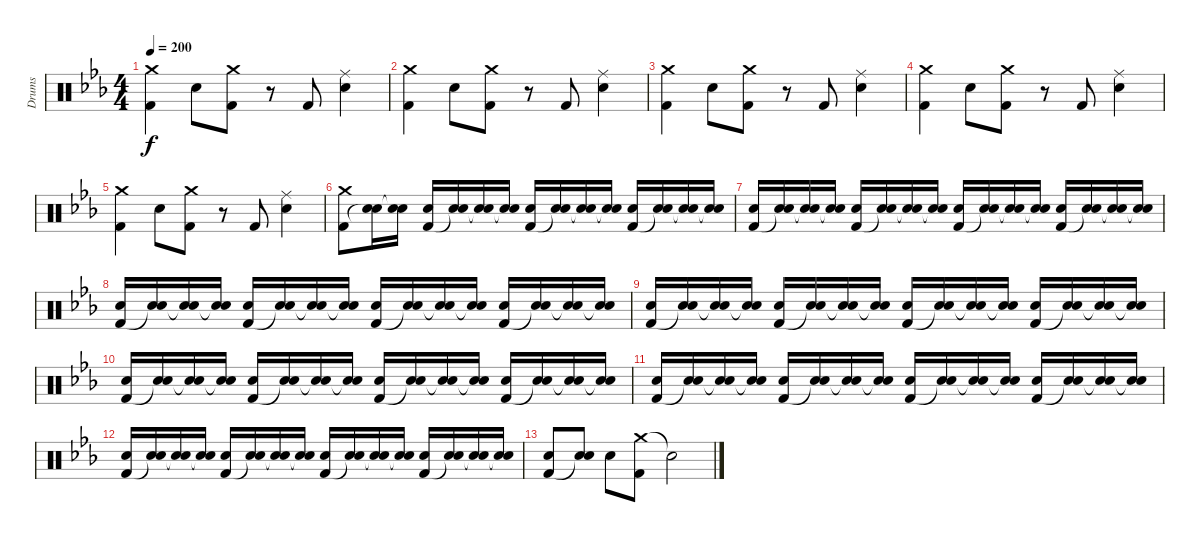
\track ("Drums" "Drums") {instrument percussion}
\staff {score}
\articulation defaults
\ts (4 4)
\tempo 200
\clef neutral
\ks cminor
("Crash medium (hit)" "Kick (hit) 2").4{dy f} "Electric Snare (hit)".8 ("Crash medium (hit)" "Kick (hit) 2").8 r.8 "Kick (hit) 2".8 ("Ride (middle)" "Electric Snare (hit)").4 |
("Crash medium (hit)" "Kick (hit) 2").4 "Electric Snare (hit)".8 ("Crash medium (hit)" "Kick (hit) 2").8 r.8 "Kick (hit) 2".8 ("Ride (middle)" "Electric Snare (hit)").4 |
("Crash medium (hit)" "Kick (hit) 2").4 "Electric Snare (hit)".8 ("Crash medium (hit)" "Kick (hit) 2").8 r.8 "Kick (hit) 2".8 ("Ride (middle)" "Electric Snare (hit)").4 |
("Crash medium (hit)" "Kick (hit) 2").4 "Electric Snare (hit)".8 ("Crash medium (hit)" "Kick (hit) 2").8 r.8 "Kick (hit) 2".8 ("Ride (middle)" "Electric Snare (hit)").4 |
("Crash medium (hit)" "Kick (hit) 2").4 "Electric Snare (hit)".8 ("Crash medium (hit)" "Kick (hit) 2").8 r.8 "Kick (hit) 2".8 ("Ride (middle)" "Electric Snare (hit)").4 |
("Crash medium (hit)" "Kick (hit) 2").8 ("Electric Snare (hit)" "Snare (hit)"{t}).16 ("Electric Snare (hit)" "Snare (hit)"{t}).16 ("Electric Snare (hit)" "Kick (hit) 2").16 ("Electric Snare (hit)" "Snare (hit)"{t}).16 ("Electric Snare (hit)" "Snare (hit)"{t}).16 ("Electric Snare (hit)" "Snare (hit)"{t}).16 ("Electric Snare (hit)" "Kick (hit) 2").16 ("Electric Snare (hit)" "Snare (hit)"{t}).16 ("Electric Snare (hit)" "Snare (hit)"{t}).16 ("Electric Snare (hit)" "Snare (hit)"{t}).16 ("Electric Snare (hit)" "Kick (hit) 2").16 ("Electric Snare (hit)" "Snare (hit)"{t}).16 ("Electric Snare (hit)" "Snare (hit)"{t}).16 ("Electric Snare (hit)" "Snare (hit)"{t}).16 |
("Electric Snare (hit)" "Kick (hit) 2").16 ("Electric Snare (hit)" "Snare (hit)"{t}).16 ("Electric Snare (hit)" "Snare (hit)"{t}).16 ("Electric Snare (hit)" "Snare (hit)"{t}).16 ("Electric Snare (hit)" "Kick (hit) 2").16 ("Electric Snare (hit)" "Snare (hit)"{t}).16 ("Electric Snare (hit)" "Snare (hit)"{t}).16 ("Electric Snare (hit)" "Snare (hit)"{t}).16 ("Electric Snare (hit)" "Kick (hit) 2").16 ("Electric Snare (hit)" "Snare (hit)"{t}).16 ("Electric Snare (hit)" "Snare (hit)"{t}).16 ("Electric Snare (hit)" "Snare (hit)"{t}).16 ("Electric Snare (hit)" "Kick (hit) 2").16 ("Electric Snare (hit)" "Snare (hit)"{t}).16 ("Electric Snare (hit)" "Snare (hit)"{t}).16 ("Electric Snare (hit)" "Snare (hit)"{t}).16 |
("Electric Snare (hit)" "Kick (hit) 2").16 ("Electric Snare (hit)" "Snare (hit)"{t}).16 ("Electric Snare (hit)" "Snare (hit)"{t}).16 ("Electric Snare (hit)" "Snare (hit)"{t}).16 ("Electric Snare (hit)" "Kick (hit) 2").16 ("Electric Snare (hit)" "Snare (hit)"{t}).16 ("Electric Snare (hit)" "Snare (hit)"{t}).16 ("Electric Snare (hit)" "Snare (hit)"{t}).16 ("Electric Snare (hit)" "Kick (hit) 2").16 ("Electric Snare (hit)" "Snare (hit)"{t}).16 ("Electric Snare (hit)" "Snare (hit)"{t}).16 ("Electric Snare (hit)" "Snare (hit)"{t}).16 ("Electric Snare (hit)" "Kick (hit) 2").16 ("Electric Snare (hit)" "Snare (hit)"{t}).16 ("Electric Snare (hit)" "Snare (hit)"{t}).16 ("Electric Snare (hit)" "Snare (hit)"{t}).16 |
("Electric Snare (hit)" "Kick (hit) 2").16 ("Electric Snare (hit)" "Snare (hit)"{t}).16 ("Electric Snare (hit)" "Snare (hit)"{t}).16 ("Electric Snare (hit)" "Snare (hit)"{t}).16 ("Electric Snare (hit)" "Kick (hit) 2").16 ("Electric Snare (hit)" "Snare (hit)"{t}).16 ("Electric Snare (hit)" "Snare (hit)"{t}).16 ("Electric Snare (hit)" "Snare (hit)"{t}).16 ("Electric Snare (hit)" "Kick (hit) 2").16 ("Electric Snare (hit)" "Snare (hit)"{t}).16 ("Electric Snare (hit)" "Snare (hit)"{t}).16 ("Electric Snare (hit)" "Snare (hit)"{t}).16 ("Electric Snare (hit)" "Kick (hit) 2").16 ("Electric Snare (hit)" "Snare (hit)"{t}).16 ("Electric Snare (hit)" "Snare (hit)"{t}).16 ("Electric Snare (hit)" "Snare (hit)"{t}).16 |
("Electric Snare (hit)" "Kick (hit) 2").16 ("Electric Snare (hit)" "Snare (hit)"{t}).16 ("Electric Snare (hit)" "Snare (hit)"{t}).16 ("Electric Snare (hit)" "Snare (hit)"{t}).16 ("Electric Snare (hit)" "Kick (hit) 2").16 ("Electric Snare (hit)" "Snare (hit)"{t}).16 ("Electric Snare (hit)" "Snare (hit)"{t}).16 ("Electric Snare (hit)" "Snare (hit)"{t}).16 ("Electric Snare (hit)" "Kick (hit) 2").16 ("Electric Snare (hit)" "Snare (hit)"{t}).16 ("Electric Snare (hit)" "Snare (hit)"{t}).16 ("Electric Snare (hit)" "Snare (hit)"{t}).16 ("Electric Snare (hit)" "Kick (hit) 2").16 ("Electric Snare (hit)" "Snare (hit)"{t}).16 ("Electric Snare (hit)" "Snare (hit)"{t}).16 ("Electric Snare (hit)" "Snare (hit)"{t}).16 |
("Electric Snare (hit)" "Kick (hit) 2").16 ("Electric Snare (hit)" "Snare (hit)"{t}).16 ("Electric Snare (hit)" "Snare (hit)"{t}).16 ("Electric Snare (hit)" "Snare (hit)"{t}).16 ("Electric Snare (hit)" "Kick (hit) 2").16 ("Electric Snare (hit)" "Snare (hit)"{t}).16 ("Electric Snare (hit)" "Snare (hit)"{t}).16 ("Electric Snare (hit)" "Snare (hit)"{t}).16 ("Electric Snare (hit)" "Kick (hit) 2").16 ("Electric Snare (hit)" "Snare (hit)"{t}).16 ("Electric Snare (hit)" "Snare (hit)"{t}).16 ("Electric Snare (hit)" "Snare (hit)"{t}).16 ("Electric Snare (hit)" "Kick (hit) 2").16 ("Electric Snare (hit)" "Snare (hit)"{t}).16 ("Electric Snare (hit)" "Snare (hit)"{t}).16 ("Electric Snare (hit)" "Snare (hit)"{t}).16 |
("Electric Snare (hit)" "Kick (hit) 2").16 ("Electric Snare (hit)" "Snare (hit)"{t}).16 ("Electric Snare (hit)" "Snare (hit)"{t}).16 ("Electric Snare (hit)" "Snare (hit)"{t}).16 ("Electric Snare (hit)" "Kick (hit) 2").16 ("Electric Snare (hit)" "Snare (hit)"{t}).16 ("Electric Snare (hit)" "Snare (hit)"{t}).16 ("Electric Snare (hit)" "Snare (hit)"{t}).16 ("Electric Snare (hit)" "Kick (hit) 2").16 ("Electric Snare (hit)" "Snare (hit)"{t}).16 ("Electric Snare (hit)" "Snare (hit)"{t}).16 ("Electric Snare (hit)" "Snare (hit)"{t}).16 ("Electric Snare (hit)" "Kick (hit) 2").16 ("Electric Snare (hit)" "Snare (hit)"{t}).16 ("Electric Snare (hit)" "Snare (hit)"{t}).16 ("Electric Snare (hit)" "Snare (hit)"{t}).16 |
("Electric Snare (hit)" "Kick (hit) 2").8 ("Electric Snare (hit)" "Snare (hit)"{t}).8 "Electric Snare (hit)".8 ("Crash medium (hit)" "Kick (hit) 2").8 "Snare (hit)"{t}.2
